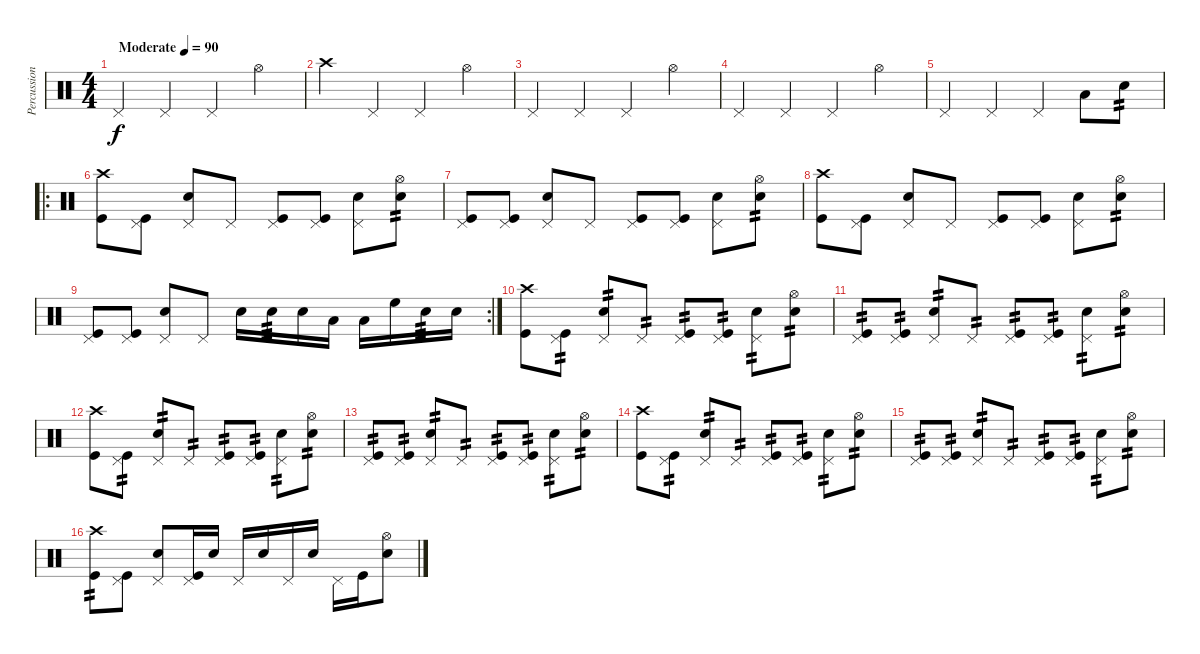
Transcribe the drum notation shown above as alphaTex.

\track ("Percussions" "Percussion") {instrument percussion}
\staff {score}
\articulation defaults
\ts (4 4)
\tempo (90 "Moderate")
\clef neutral
\ks c "Pedal Hi-Hat (hit)".4{dy f} "Pedal Hi-Hat (hit)".4 "Pedal Hi-Hat (hit)".4 "Hi-Hat (open)".4
|
"Crash high (hit)".4 "Pedal Hi-Hat (hit)".4 "Pedal Hi-Hat (hit)".4 "Hi-Hat (open)".4 |
"Pedal Hi-Hat (hit)".4 "Pedal Hi-Hat (hit)".4 "Pedal Hi-Hat (hit)".4 "Hi-Hat (open)".4 |
"Pedal Hi-Hat (hit)".4 "Pedal Hi-Hat (hit)".4 "Pedal Hi-Hat (hit)".4 "Hi-Hat (open)".4 |
"Pedal Hi-Hat (hit)".4 "Pedal Hi-Hat (hit)".4 "Pedal Hi-Hat (hit)".4 "Low Tom (hit)".8 "Snare (hit) 2".8{tp 2} |
\ro
("Crash high (hit)" "Kick (hit)").8 ("Pedal Hi-Hat (hit)" "Kick (hit)").8 ("Pedal Hi-Hat (hit)" "Snare (hit) 2").8 "Pedal Hi-Hat (hit)".8 ("Pedal Hi-Hat (hit)" "Kick (hit)").8 ("Pedal Hi-Hat (hit)" "Kick (hit)").8 ("Pedal Hi-Hat (hit)" "Snare (hit) 2").8 ("Hi-Hat (open)" "Snare (hit) 2").8{tp 2} |
("Pedal Hi-Hat (hit)" "Kick (hit)").8 ("Pedal Hi-Hat (hit)" "Kick (hit)").8 ("Pedal Hi-Hat (hit)" "Snare (hit) 2").8 "Pedal Hi-Hat (hit)".8 ("Pedal Hi-Hat (hit)" "Kick (hit)").8 ("Pedal Hi-Hat (hit)" "Kick (hit)").8 ("Pedal Hi-Hat (hit)" "Snare (hit) 2").8 ("Hi-Hat (open)" "Snare (hit) 2").8{tp 2} |
("Crash high (hit)" "Kick (hit)").8 ("Pedal Hi-Hat (hit)" "Kick (hit)").8 ("Pedal Hi-Hat (hit)" "Snare (hit) 2").8 "Pedal Hi-Hat (hit)".8 ("Pedal Hi-Hat (hit)" "Kick (hit)").8 ("Pedal Hi-Hat (hit)" "Kick (hit)").8 ("Pedal Hi-Hat (hit)" "Snare (hit) 2").8 ("Hi-Hat (open)" "Snare (hit) 2").8{tp 2} |
\rc 2
("Pedal Hi-Hat (hit)" "Kick (hit)").8 ("Pedal Hi-Hat (hit)" "Kick (hit)").8 ("Pedal Hi-Hat (hit)" "Snare (hit) 2").8 "Pedal Hi-Hat (hit)".8 "Snare (hit) 2".16 "Snare (hit) 2".16{tp 3} "Snare (hit) 2".16 "Low Tom (hit)".16 "Low Tom (hit)".16 "High Floor Tom (hit)".16 "Snare (hit) 2".16{tp 3} "Snare (hit) 2".16 |
("Crash high (hit)" "Kick (hit)").8 ("Pedal Hi-Hat (hit)" "Kick (hit)").8{tp 2} ("Pedal Hi-Hat (hit)" "Snare (hit) 2").8{tp 2} "Pedal Hi-Hat (hit)".8{tp 2} ("Pedal Hi-Hat (hit)" "Kick (hit)").8{tp 2} ("Pedal Hi-Hat (hit)" "Kick (hit)").8{tp 2} ("Pedal Hi-Hat (hit)" "Snare (hit) 2").8{tp 2} ("Hi-Hat (open)" "Snare (hit) 2").8{tp 2} |
("Pedal Hi-Hat (hit)" "Kick (hit)").8{tp 2} ("Pedal Hi-Hat (hit)" "Kick (hit)").8{tp 2} ("Pedal Hi-Hat (hit)" "Snare (hit) 2").8{tp 2} "Pedal Hi-Hat (hit)".8{tp 2} ("Pedal Hi-Hat (hit)" "Kick (hit)").8{tp 2} ("Pedal Hi-Hat (hit)" "Kick (hit)").8{tp 2} ("Pedal Hi-Hat (hit)" "Snare (hit) 2").8{tp 2} ("Hi-Hat (open)" "Snare (hit) 2").8{tp 2} |
("Crash high (hit)" "Kick (hit)").8 ("Pedal Hi-Hat (hit)" "Kick (hit)").8{tp 2} ("Pedal Hi-Hat (hit)" "Snare (hit) 2").8{tp 2} "Pedal Hi-Hat (hit)".8{tp 2} ("Pedal Hi-Hat (hit)" "Kick (hit)").8{tp 2} ("Pedal Hi-Hat (hit)" "Kick (hit)").8{tp 2} ("Pedal Hi-Hat (hit)" "Snare (hit) 2").8{tp 2} ("Hi-Hat (open)" "Snare (hit) 2").8{tp 2} |
("Pedal Hi-Hat (hit)" "Kick (hit)").8{tp 2} ("Pedal Hi-Hat (hit)" "Kick (hit)").8{tp 2} ("Pedal Hi-Hat (hit)" "Snare (hit) 2").8{tp 2} "Pedal Hi-Hat (hit)".8{tp 2} ("Pedal Hi-Hat (hit)" "Kick (hit)").8{tp 2} ("Pedal Hi-Hat (hit)" "Kick (hit)").8{tp 2} ("Pedal Hi-Hat (hit)" "Snare (hit) 2").8{tp 2} ("Hi-Hat (open)" "Snare (hit) 2").8{tp 2} |
("Crash high (hit)" "Kick (hit)").8 ("Pedal Hi-Hat (hit)" "Kick (hit)").8{tp 2} ("Pedal Hi-Hat (hit)" "Snare (hit) 2").8{tp 2} "Pedal Hi-Hat (hit)".8{tp 2} ("Pedal Hi-Hat (hit)" "Kick (hit)").8{tp 2} ("Pedal Hi-Hat (hit)" "Kick (hit)").8{tp 2} ("Pedal Hi-Hat (hit)" "Snare (hit) 2").8{tp 2} ("Hi-Hat (open)" "Snare (hit) 2").8{tp 2} |
("Pedal Hi-Hat (hit)" "Kick (hit)").8{tp 2} ("Pedal Hi-Hat (hit)" "Kick (hit)").8{tp 2} ("Pedal Hi-Hat (hit)" "Snare (hit) 2").8{tp 2} "Pedal Hi-Hat (hit)".8{tp 2} ("Pedal Hi-Hat (hit)" "Kick (hit)").8{tp 2} ("Pedal Hi-Hat (hit)" "Kick (hit)").8{tp 2} ("Pedal Hi-Hat (hit)" "Snare (hit) 2").8{tp 2} ("Hi-Hat (open)" "Snare (hit) 2").8{tp 2} |
("Crash high (hit)" "Kick (hit)").8{tp 2} ("Pedal Hi-Hat (hit)" "Kick (hit)").8 ("Pedal Hi-Hat (hit)" "Snare (hit) 2").8 ("Pedal Hi-Hat (hit)" "Kick (hit)").16 "Snare (hit) 2".16 "Pedal Hi-Hat (hit)".16 "Snare (hit) 2".16 "Pedal Hi-Hat (hit)".16 "Snare (hit) 2".16 "Pedal Hi-Hat (hit)".16 "Kick (hit)".16 ("Hi-Hat (open)" "Snare (hit) 2").8
